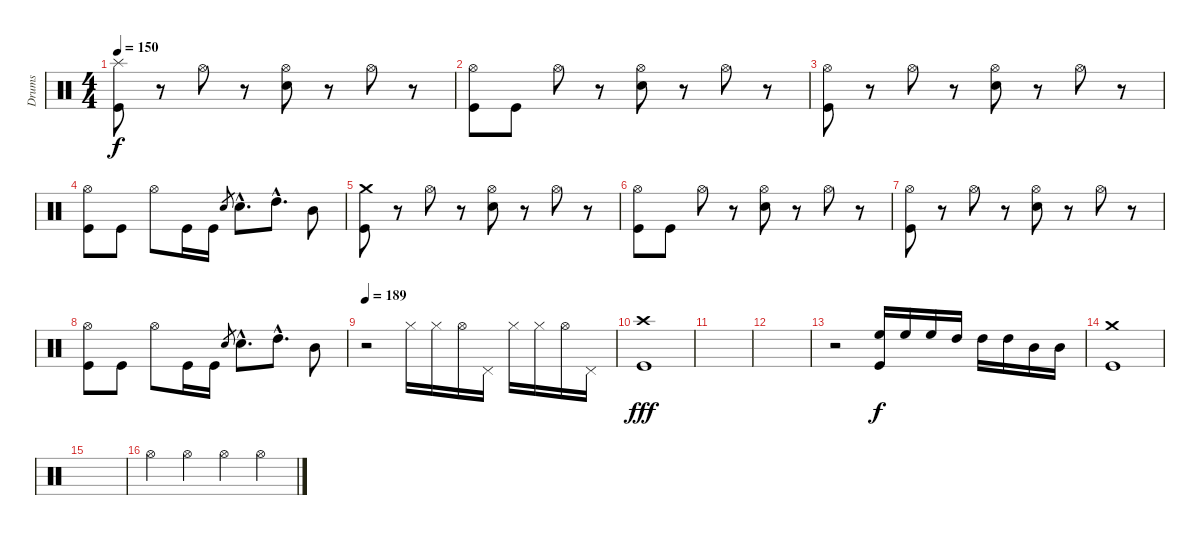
\track ("Drums" "Drums") {instrument percussion}
\staff {score}
\articulation defaults
\ts (4 4)
\tempo 150
\clef neutral
\ks c
("Splash (hit)" "Kick (hit)").8{dy f} r.8 "Hi-Hat (open)".8 r.8 ("Hi-Hat (open)" "Electric Snare (hit)").8 r.8 "Hi-Hat (open)".8 r.8 |
("Hi-Hat (open)" "Kick (hit)").8 "Kick (hit)".8 "Hi-Hat (open)".8 r.8 ("Hi-Hat (open)" "Electric Snare (hit)").8 r.8 "Hi-Hat (open)".8 r.8 |
("Hi-Hat (open)" "Kick (hit)").8 r.8 "Hi-Hat (open)".8 r.8 ("Hi-Hat (open)" "Electric Snare (hit)").8 r.8 "Hi-Hat (open)".8 r.8 |
("Hi-Hat (open)" "Kick (hit)").8 "Kick (hit)".8 "Hi-Hat (open)".8 "Kick (hit)".16 "Kick (hit)".16 "Snare (hit) 2".8{gr} "Snare (hit) 2"{hac}.8{d} "High Tom (hit)"{hac}.8{d} "Mid Tom (hit)".8 |
("Crash medium (hit)" "Kick (hit)").8 r.8 "Hi-Hat (open)".8 r.8 ("Hi-Hat (open)" "Electric Snare (hit)").8 r.8 "Hi-Hat (open)".8 r.8 |
("Hi-Hat (open)" "Kick (hit)").8 "Kick (hit)".8 "Hi-Hat (open)".8 r.8 ("Hi-Hat (open)" "Electric Snare (hit)").8 r.8 "Hi-Hat (open)".8 r.8 |
("Hi-Hat (open)" "Kick (hit)").8 r.8 "Hi-Hat (open)".8 r.8 ("Hi-Hat (open)" "Electric Snare (hit)").8 r.8 "Hi-Hat (open)".8 r.8 |
("Hi-Hat (open)" "Kick (hit)").8 "Kick (hit)".8 "Hi-Hat (open)".8 "Kick (hit)".16 "Kick (hit)".16 "Snare (hit) 2".8{gr} "Snare (hit) 2"{hac}.8{d} "High Tom (hit)"{hac}.8{d} "Mid Tom (hit)".8 |
\tempo 189
r.2 "Hi-Hat (closed)".16 "Hi-Hat (closed)".16 "Hi-Hat (open)".16 "Pedal Hi-Hat (hit)".16 "Hi-Hat (closed)".16 "Hi-Hat (closed)".16 "Hi-Hat (open)".16 "Pedal Hi-Hat (hit)".16 |
("Crash high (hit)" "Kick (hit)").1{dy fff} |
|
|
r.2 ("High Floor Tom (hit)" "Kick (hit)").16{dy f} "High Floor Tom (hit)".16 "High Floor Tom (hit)".16 "High Tom (hit)".16 "High Tom (hit)".16 "High Tom (hit)".16 "Mid Tom (hit)".16 "Mid Tom (hit)".16 |
("Crash medium (hit)" "Kick (hit)").1 |
|
"Hi-Hat (open)".4 "Hi-Hat (open)".4 "Hi-Hat (open)".4 "Hi-Hat (open)".4
